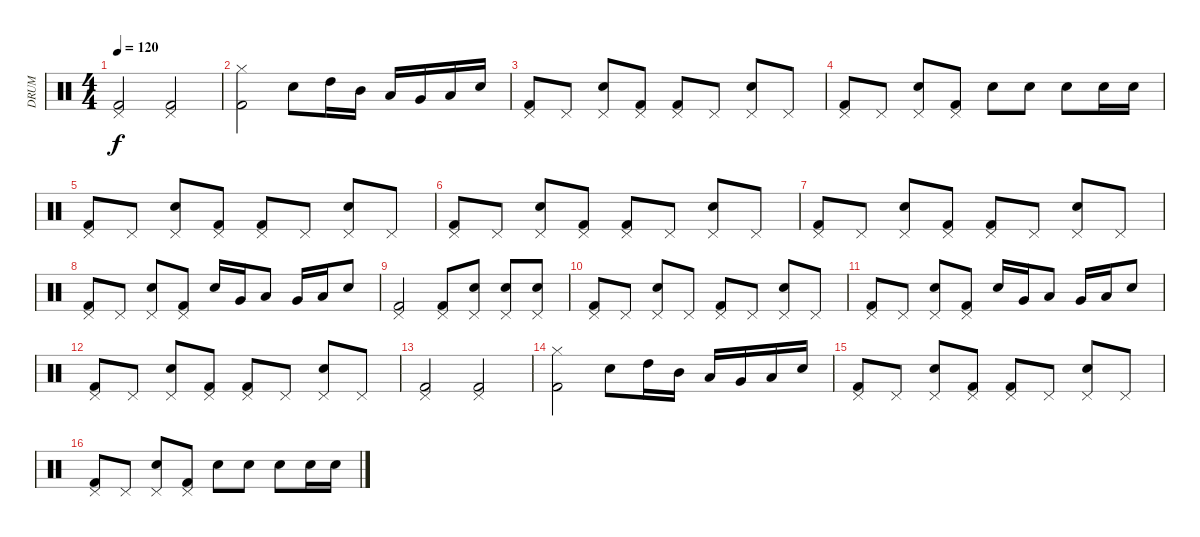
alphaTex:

\track ("DRUM" "DRUM") {instrument percussion}
\staff {score}
\articulation defaults
\ts (4 4)
\tempo 120
\clef neutral
\ks c
("Kick (hit) 2" "Pedal Hi-Hat (hit)").2{dy f} ("Kick (hit) 2" "Pedal Hi-Hat (hit)").2 |
("Kick (hit) 2" "Hi-Hat (closed)").2 "Electric Snare (hit)".8 "High Tom (hit)".16 "Mid Tom (hit)".16 "Low Tom (hit)".16 "Very Low Tom (hit)".16 "Low Floor Tom (hit)".16 "Electric Snare (hit)".16 |
("Kick (hit) 2" "Pedal Hi-Hat (hit)").8 "Pedal Hi-Hat (hit)".8 ("Electric Snare (hit)" "Pedal Hi-Hat (hit)").8 ("Kick (hit) 2" "Pedal Hi-Hat (hit)").8 ("Kick (hit) 2" "Pedal Hi-Hat (hit)").8 "Pedal Hi-Hat (hit)".8 ("Electric Snare (hit)" "Pedal Hi-Hat (hit)").8 "Pedal Hi-Hat (hit)".8 |
("Kick (hit) 2" "Pedal Hi-Hat (hit)").8 "Pedal Hi-Hat (hit)".8 ("Electric Snare (hit)" "Pedal Hi-Hat (hit)").8 ("Kick (hit) 2" "Pedal Hi-Hat (hit)").8 "Electric Snare (hit)".8 "Electric Snare (hit)".8 "Electric Snare (hit)".8 "Electric Snare (hit)".16 "Electric Snare (hit)".16 |
("Kick (hit) 2" "Pedal Hi-Hat (hit)").8 "Pedal Hi-Hat (hit)".8 ("Electric Snare (hit)" "Pedal Hi-Hat (hit)").8 ("Kick (hit) 2" "Pedal Hi-Hat (hit)").8 ("Kick (hit) 2" "Pedal Hi-Hat (hit)").8 "Pedal Hi-Hat (hit)".8 ("Electric Snare (hit)" "Pedal Hi-Hat (hit)").8 "Pedal Hi-Hat (hit)".8 |
("Kick (hit) 2" "Pedal Hi-Hat (hit)").8 "Pedal Hi-Hat (hit)".8 ("Electric Snare (hit)" "Pedal Hi-Hat (hit)").8 ("Kick (hit) 2" "Pedal Hi-Hat (hit)").8 ("Kick (hit) 2" "Pedal Hi-Hat (hit)").8 "Pedal Hi-Hat (hit)".8 ("Electric Snare (hit)" "Pedal Hi-Hat (hit)").8 "Pedal Hi-Hat (hit)".8 |
("Kick (hit) 2" "Pedal Hi-Hat (hit)").8 "Pedal Hi-Hat (hit)".8 ("Electric Snare (hit)" "Pedal Hi-Hat (hit)").8 ("Kick (hit) 2" "Pedal Hi-Hat (hit)").8 ("Kick (hit) 2" "Pedal Hi-Hat (hit)").8 "Pedal Hi-Hat (hit)".8 ("Electric Snare (hit)" "Pedal Hi-Hat (hit)").8 "Pedal Hi-Hat (hit)".8 |
("Kick (hit) 2" "Pedal Hi-Hat (hit)").8 "Pedal Hi-Hat (hit)".8 ("Electric Snare (hit)" "Pedal Hi-Hat (hit)").8 ("Kick (hit) 2" "Pedal Hi-Hat (hit)").8 "Electric Snare (hit)".16 "Very Low Tom (hit)".16 "Low Tom (hit)".8 "Very Low Tom (hit)".16 "Low Tom (hit)".16 "Electric Snare (hit)".8 |
("Kick (hit) 2" "Pedal Hi-Hat (hit)").2 ("Kick (hit) 2" "Pedal Hi-Hat (hit)").8 ("Electric Snare (hit)" "Pedal Hi-Hat (hit)").8 ("Electric Snare (hit)" "Pedal Hi-Hat (hit)").8 ("Electric Snare (hit)" "Pedal Hi-Hat (hit)").8 |
("Kick (hit) 2" "Pedal Hi-Hat (hit)").8 "Pedal Hi-Hat (hit)".8 ("Electric Snare (hit)" "Pedal Hi-Hat (hit)").8 "Pedal Hi-Hat (hit)".8 ("Kick (hit) 2" "Pedal Hi-Hat (hit)").8 "Pedal Hi-Hat (hit)".8 ("Electric Snare (hit)" "Pedal Hi-Hat (hit)").8 "Pedal Hi-Hat (hit)".8 |
("Kick (hit) 2" "Pedal Hi-Hat (hit)").8 "Pedal Hi-Hat (hit)".8 ("Electric Snare (hit)" "Pedal Hi-Hat (hit)").8 ("Kick (hit) 2" "Pedal Hi-Hat (hit)").8 "Electric Snare (hit)".16 "Very Low Tom (hit)".16 "Low Tom (hit)".8 "Very Low Tom (hit)".16 "Low Tom (hit)".16 "Electric Snare (hit)".8 |
("Kick (hit) 2" "Pedal Hi-Hat (hit)").8 "Pedal Hi-Hat (hit)".8 ("Electric Snare (hit)" "Pedal Hi-Hat (hit)").8 ("Kick (hit) 2" "Pedal Hi-Hat (hit)").8 ("Kick (hit) 2" "Pedal Hi-Hat (hit)").8 "Pedal Hi-Hat (hit)".8 ("Electric Snare (hit)" "Pedal Hi-Hat (hit)").8 "Pedal Hi-Hat (hit)".8 |
("Kick (hit) 2" "Pedal Hi-Hat (hit)").2 ("Kick (hit) 2" "Pedal Hi-Hat (hit)").2 |
("Kick (hit) 2" "Hi-Hat (closed)").2 "Electric Snare (hit)".8 "High Tom (hit)".16 "Mid Tom (hit)".16 "Low Tom (hit)".16 "Very Low Tom (hit)".16 "Low Floor Tom (hit)".16 "Electric Snare (hit)".16 |
("Kick (hit) 2" "Pedal Hi-Hat (hit)").8 "Pedal Hi-Hat (hit)".8 ("Electric Snare (hit)" "Pedal Hi-Hat (hit)").8 ("Kick (hit) 2" "Pedal Hi-Hat (hit)").8 ("Kick (hit) 2" "Pedal Hi-Hat (hit)").8 "Pedal Hi-Hat (hit)".8 ("Electric Snare (hit)" "Pedal Hi-Hat (hit)").8 "Pedal Hi-Hat (hit)".8 |
("Kick (hit) 2" "Pedal Hi-Hat (hit)").8 "Pedal Hi-Hat (hit)".8 ("Electric Snare (hit)" "Pedal Hi-Hat (hit)").8 ("Kick (hit) 2" "Pedal Hi-Hat (hit)").8 "Electric Snare (hit)".8 "Electric Snare (hit)".8 "Electric Snare (hit)".8 "Electric Snare (hit)".16 "Electric Snare (hit)".16
